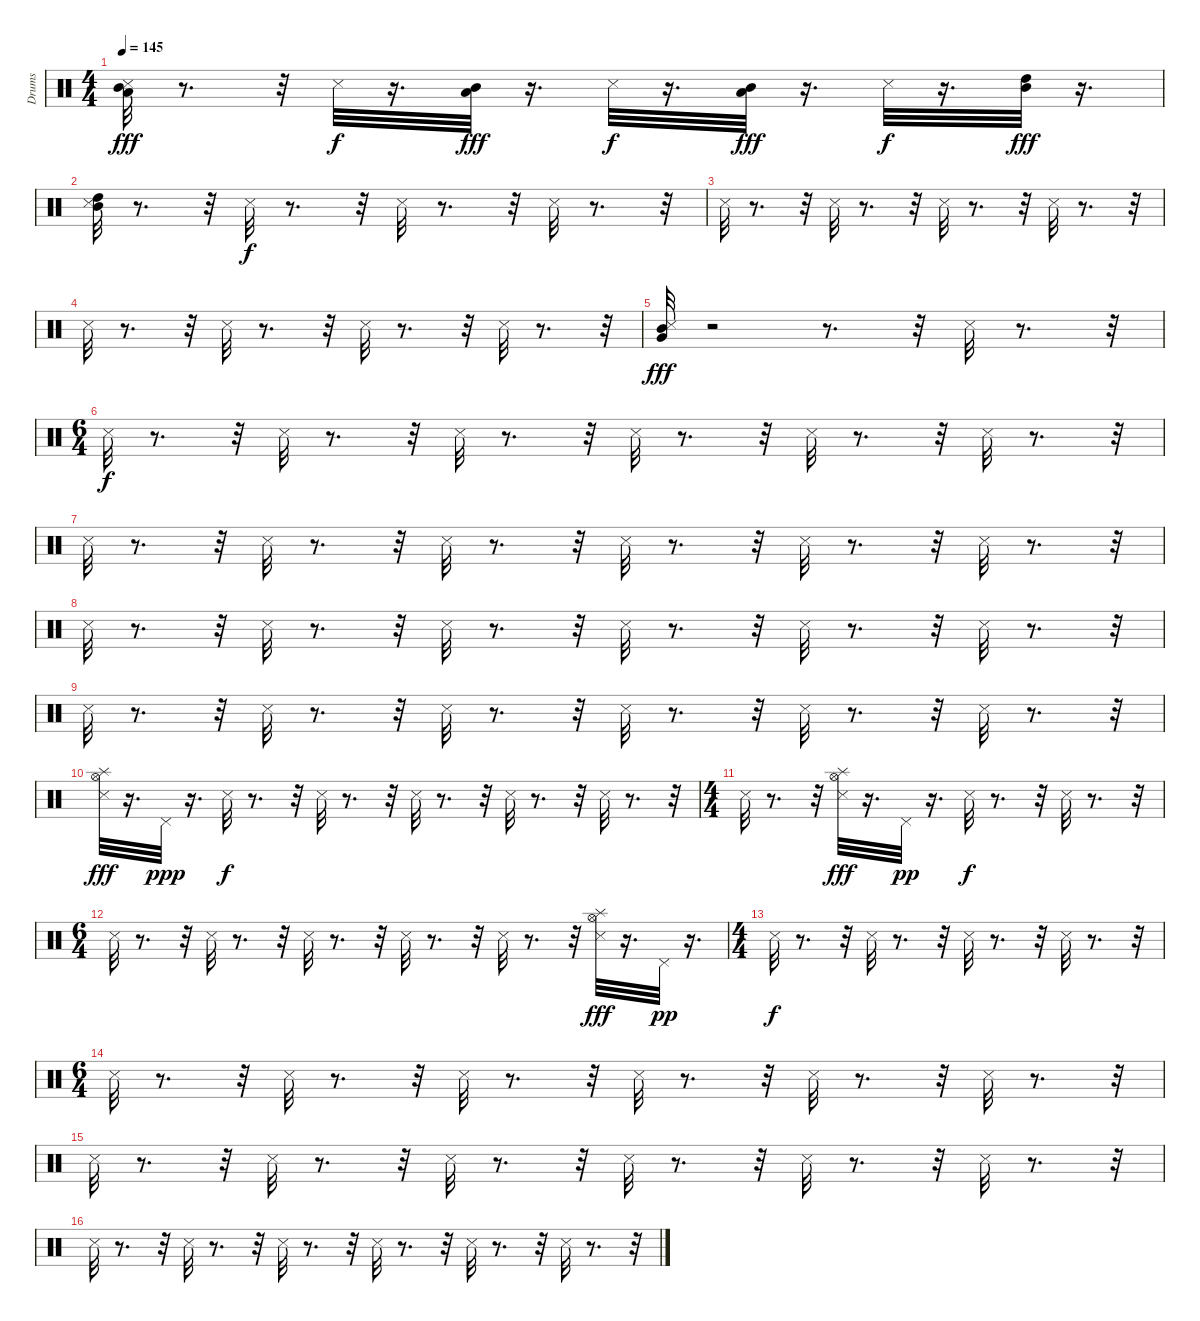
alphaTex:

\track ("Drums" "Drums") {instrument percussion}
\staff {score}
\articulation defaults
\ts (4 4)
\tempo 145
\clef neutral
\ks c
("Metronome (hit)" "Low Tom (hit)" "Mid Tom (hit)").32{dy fff} r.8{d} r.32 "Metronome (hit)".32{dy f} r.16{d} ("Low Tom (hit)" "Mid Tom (hit)").32{dy fff} r.16{d} "Metronome (hit)".32{dy f} r.16{d} ("Low Tom (hit)" "Mid Tom (hit)").32{dy fff} r.16{d} "Metronome (hit)".32{dy f} r.16{d} ("Mid Tom (hit)" "High Tom (hit)").32{dy fff} r.16{d} |
("High Tom (hit)" "Mid Tom (hit)" "Metronome (hit)").32 r.8{d} r.32 "Metronome (hit)".32{dy f} r.8{d} r.32 "Metronome (hit)".32 r.8{d} r.32 "Metronome (hit)".32 r.8{d} r.32 |
"Metronome (hit)".32 r.8{d} r.32 "Metronome (hit)".32 r.8{d} r.32 "Metronome (hit)".32 r.8{d} r.32 "Metronome (hit)".32 r.8{d} r.32 |
"Metronome (hit)".32 r.8{d} r.32 "Metronome (hit)".32 r.8{d} r.32 "Metronome (hit)".32 r.8{d} r.32 "Metronome (hit)".32 r.8{d} r.32 |
("Mid Tom (hit)" "Very Low Tom (hit)" "Metronome (hit)").32{dy fff} r.2 r.8{d} r.32 "Metronome (hit)".32 r.8{d} r.32 |
\ts (6 4)
"Metronome (hit)".32{dy f} r.8{d} r.32 "Metronome (hit)".32 r.8{d} r.32 "Metronome (hit)".32 r.8{d} r.32 "Metronome (hit)".32 r.8{d} r.32 "Metronome (hit)".32 r.8{d} r.32 "Metronome (hit)".32 r.8{d} r.32 |
"Metronome (hit)".32 r.8{d} r.32 "Metronome (hit)".32 r.8{d} r.32 "Metronome (hit)".32 r.8{d} r.32 "Metronome (hit)".32 r.8{d} r.32 "Metronome (hit)".32 r.8{d} r.32 "Metronome (hit)".32 r.8{d} r.32 |
"Metronome (hit)".32 r.8{d} r.32 "Metronome (hit)".32 r.8{d} r.32 "Metronome (hit)".32 r.8{d} r.32 "Metronome (hit)".32 r.8{d} r.32 "Metronome (hit)".32 r.8{d} r.32 "Metronome (hit)".32 r.8{d} r.32 |
"Metronome (hit)".32 r.8{d} r.32 "Metronome (hit)".32 r.8{d} r.32 "Metronome (hit)".32 r.8{d} r.32 "Metronome (hit)".32 r.8{d} r.32 "Metronome (hit)".32 r.8{d} r.32 "Metronome (hit)".32 r.8{d} r.32 |
("Hi-Hat (open)" "Splash (hit)" "Metronome (hit)").32{dy fff} r.16{d} "Pedal Hi-Hat (hit)".32{dy ppp} r.16{d} "Metronome (hit)".32{dy f} r.8{d} r.32 "Metronome (hit)".32 r.8{d} r.32 "Metronome (hit)".32 r.8{d} r.32 "Metronome (hit)".32 r.8{d} r.32 "Metronome (hit)".32 r.8{d} r.32 |
\ts (4 4)
"Metronome (hit)".32 r.8{d} r.32 ("Hi-Hat (open)" "Splash (hit)" "Metronome (hit)").32{dy fff} r.16{d} "Pedal Hi-Hat (hit)".32{dy pp} r.16{d} "Metronome (hit)".32{dy f} r.8{d} r.32 "Metronome (hit)".32 r.8{d} r.32 |
\ts (6 4)
"Metronome (hit)".32 r.8{d} r.32 "Metronome (hit)".32 r.8{d} r.32 "Metronome (hit)".32 r.8{d} r.32 "Metronome (hit)".32 r.8{d} r.32 "Metronome (hit)".32 r.8{d} r.32 ("Metronome (hit)" "Hi-Hat (open)" "Splash (hit)").32{dy fff} r.16{d} "Pedal Hi-Hat (hit)".32{dy pp} r.16{d} |
\ts (4 4)
"Metronome (hit)".32{dy f} r.8{d} r.32 "Metronome (hit)".32 r.8{d} r.32 "Metronome (hit)".32 r.8{d} r.32 "Metronome (hit)".32 r.8{d} r.32 |
\ts (6 4)
"Metronome (hit)".32 r.8{d} r.32 "Metronome (hit)".32 r.8{d} r.32 "Metronome (hit)".32 r.8{d} r.32 "Metronome (hit)".32 r.8{d} r.32 "Metronome (hit)".32 r.8{d} r.32 "Metronome (hit)".32 r.8{d} r.32 |
"Metronome (hit)".32 r.8{d} r.32 "Metronome (hit)".32 r.8{d} r.32 "Metronome (hit)".32 r.8{d} r.32 "Metronome (hit)".32 r.8{d} r.32 "Metronome (hit)".32 r.8{d} r.32 "Metronome (hit)".32 r.8{d} r.32 |
"Metronome (hit)".32 r.8{d} r.32 "Metronome (hit)".32 r.8{d} r.32 "Metronome (hit)".32 r.8{d} r.32 "Metronome (hit)".32 r.8{d} r.32 "Metronome (hit)".32 r.8{d} r.32 "Metronome (hit)".32 r.8{d} r.32
